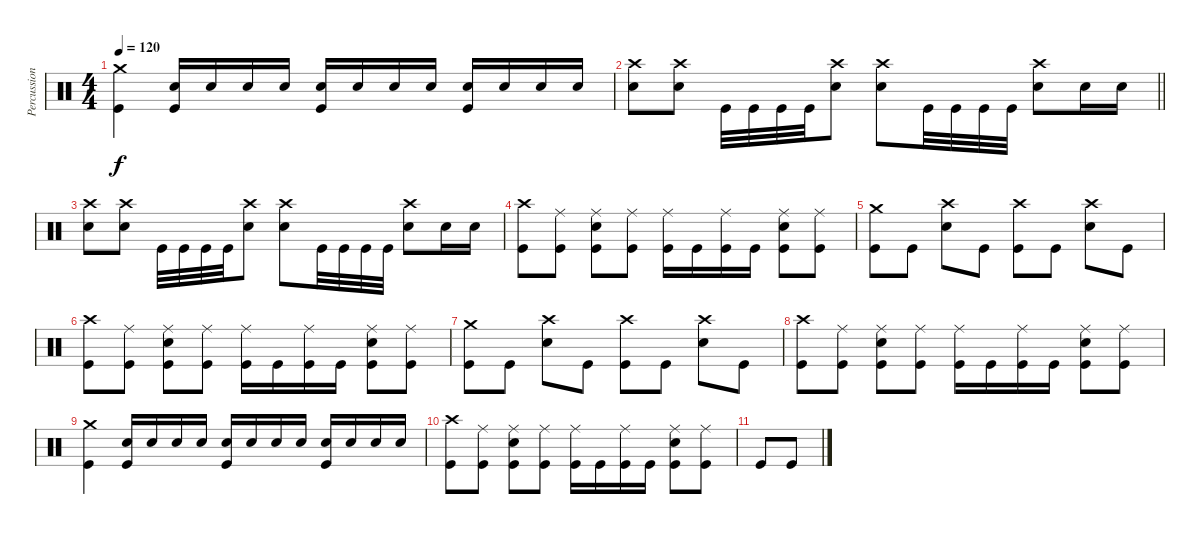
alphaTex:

\track ("Percussion" "Percussion") {instrument percussion}
\staff {score}
\articulation defaults
\ts (4 4)
\tempo 120
\clef neutral
\ks c
("Crash medium (hit)" "Kick (hit)").4{dy f} ("Kick (hit)" "Snare (hit) 2").16{volume 6} "Snare (hit) 2".16{volume 13} "Snare (hit) 2".16 "Snare (hit) 2".16 ("Kick (hit)" "Snare (hit) 2").16 "Snare (hit) 2".16 "Snare (hit) 2".16 "Snare (hit) 2".16 ("Kick (hit)" "Snare (hit) 2").16 "Snare (hit) 2".16 "Snare (hit) 2".16 "Snare (hit) 2".16 |
\barLineRight lightlight
("Crash high (hit)" "Snare (hit) 2").8 ("Snare (hit) 2" "Crash high (hit)").8 "Kick (hit)".32 "Kick (hit)".32 "Kick (hit)".32 "Kick (hit)".32 ("Snare (hit) 2" "Crash high (hit)").8 ("Snare (hit) 2" "Crash high (hit)").8 "Kick (hit)".32 "Kick (hit)".32 "Kick (hit)".32 "Kick (hit)".32 ("Snare (hit) 2" "Crash high (hit)").8 "Snare (hit) 2".16 "Snare (hit) 2".16 |
("Crash high (hit)" "Snare (hit) 2").8 ("Snare (hit) 2" "Crash high (hit)").8 "Kick (hit)".32 "Kick (hit)".32 "Kick (hit)".32 "Kick (hit)".32 ("Snare (hit) 2" "Crash high (hit)").8 ("Snare (hit) 2" "Crash high (hit)").8 "Kick (hit)".32 "Kick (hit)".32 "Kick (hit)".32 "Kick (hit)".32 ("Snare (hit) 2" "Crash high (hit)").8 "Snare (hit) 2".16 "Snare (hit) 2".16 |
("Kick (hit)" "Crash high (hit)").8 ("Kick (hit)" "Ride (middle)").8 ("Kick (hit)" "Ride (middle)" "Snare (hit) 2").8 ("Kick (hit)" "Ride (middle)").8 ("Kick (hit)" "Ride (middle)").16 "Kick (hit)".16 ("Kick (hit)" "Ride (middle)").16 "Kick (hit)".16 ("Ride (middle)" "Snare (hit) 2" "Kick (hit)").8 ("Kick (hit)" "Ride (middle)").8 |
("Kick (hit)" "Crash medium (hit)").8 "Kick (hit)".8 ("Crash high (hit)" "Snare (hit) 2").8 "Kick (hit)".8 ("Kick (hit)" "Crash high (hit)").8 "Kick (hit)".8 ("Snare (hit) 2" "Crash high (hit)").8 "Kick (hit)".8 |
("Kick (hit)" "Crash high (hit)").8 ("Kick (hit)" "Ride (middle)").8 ("Kick (hit)" "Ride (middle)" "Snare (hit) 2").8 ("Kick (hit)" "Ride (middle)").8 ("Kick (hit)" "Ride (middle)").16 "Kick (hit)".16 ("Kick (hit)" "Ride (middle)").16 "Kick (hit)".16 ("Ride (middle)" "Snare (hit) 2" "Kick (hit)").8 ("Kick (hit)" "Ride (middle)").8 |
("Kick (hit)" "Crash medium (hit)").8 "Kick (hit)".8 ("Crash high (hit)" "Snare (hit) 2").8 "Kick (hit)".8 ("Kick (hit)" "Crash high (hit)").8 "Kick (hit)".8 ("Snare (hit) 2" "Crash high (hit)").8 "Kick (hit)".8 |
("Kick (hit)" "Crash high (hit)").8 ("Kick (hit)" "Ride (middle)").8 ("Kick (hit)" "Ride (middle)" "Snare (hit) 2").8 ("Kick (hit)" "Ride (middle)").8 ("Kick (hit)" "Ride (middle)").16 "Kick (hit)".16 ("Kick (hit)" "Ride (middle)").16 "Kick (hit)".16 ("Ride (middle)" "Snare (hit) 2" "Kick (hit)").8 ("Kick (hit)" "Ride (middle)").8 |
("Crash medium (hit)" "Kick (hit)").4 ("Kick (hit)" "Snare (hit) 2").16{volume 6} "Snare (hit) 2".16{volume 13} "Snare (hit) 2".16 "Snare (hit) 2".16 ("Kick (hit)" "Snare (hit) 2").16 "Snare (hit) 2".16 "Snare (hit) 2".16 "Snare (hit) 2".16 ("Kick (hit)" "Snare (hit) 2").16 "Snare (hit) 2".16 "Snare (hit) 2".16 "Snare (hit) 2".16 |
("Kick (hit)" "Crash high (hit)").8 ("Kick (hit)" "Ride (middle)").8 ("Kick (hit)" "Ride (middle)" "Snare (hit) 2").8 ("Kick (hit)" "Ride (middle)").8 ("Kick (hit)" "Ride (middle)").16 "Kick (hit)".16 ("Kick (hit)" "Ride (middle)").16 "Kick (hit)".16 ("Ride (middle)" "Snare (hit) 2" "Kick (hit)").8 ("Kick (hit)" "Ride (middle)").8 |
"Kick (hit)".8 "Kick (hit)".8
